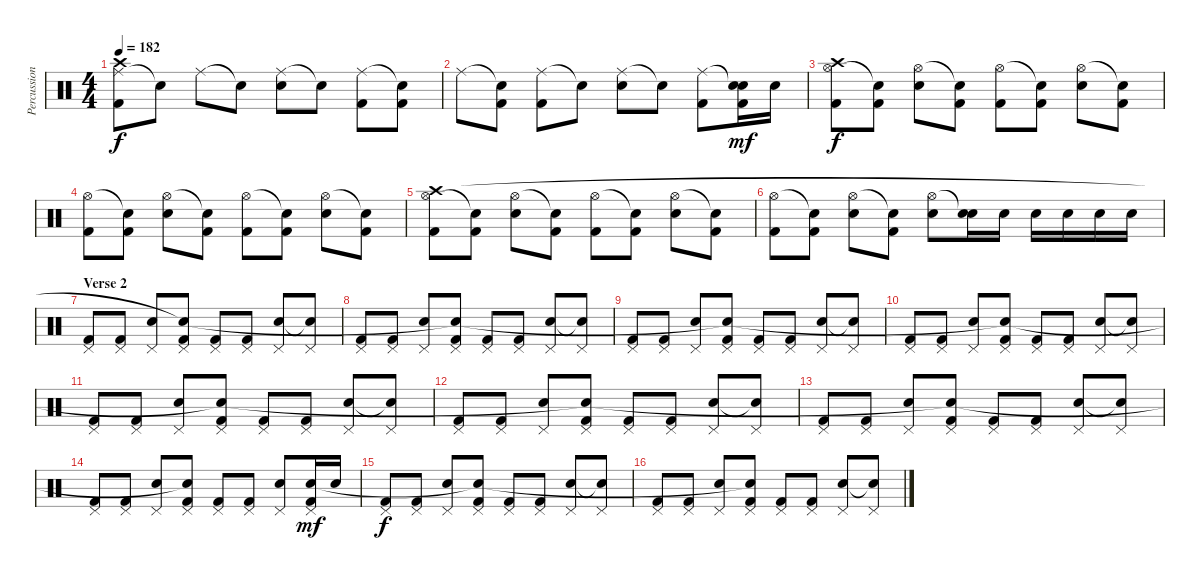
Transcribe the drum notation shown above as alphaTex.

\track ("Percussion" "Percussion") {instrument percussion}
\staff {score}
\articulation defaults
\ts (4 4)
\tempo 182
\clef neutral
\ks c
("Ride (middle)" "Kick (hit) 2" "Crash high (hit)").8{dy f} "Snare (hit)"{t}.8 "Ride (middle)".8 "Snare (hit)"{t}.8 ("Ride (middle)" "Electric Snare (hit)").8 "Snare (hit)"{t}.8 ("Ride (middle)" "Kick (hit) 2").8 ("Snare (hit)"{t} "Kick (hit) 2").8 |
"Ride (middle)".8 ("Snare (hit)"{t} "Kick (hit) 2").8 ("Ride (middle)" "Kick (hit) 2").8 "Snare (hit)"{t}.8 ("Ride (middle)" "Electric Snare (hit)").8 "Snare (hit)"{t}.8 ("Ride (middle)" "Kick (hit) 2").8 ("Snare (hit)"{t} "Kick (hit) 2" "Electric Snare (hit)").16{dy mf} "Electric Snare (hit)".16 |
("Hi-Hat (open)" "Kick (hit) 2" "Crash high (hit)").8{dy f} ("Snare (hit)"{t} "Kick (hit) 2").8 ("Hi-Hat (open)" "Electric Snare (hit)").8 ("Snare (hit)"{t} "Kick (hit) 2").8 ("Hi-Hat (open)" "Kick (hit) 2").8 ("Snare (hit)"{t} "Kick (hit) 2").8 ("Hi-Hat (open)" "Electric Snare (hit)").8 ("Snare (hit)"{t} "Kick (hit) 2").8 |
("Hi-Hat (open)" "Kick (hit) 2").8 ("Snare (hit)"{t} "Kick (hit) 2").8 ("Hi-Hat (open)" "Electric Snare (hit)").8 ("Snare (hit)"{t} "Kick (hit) 2").8 ("Hi-Hat (open)" "Kick (hit) 2").8 ("Snare (hit)"{t} "Kick (hit) 2").8 ("Hi-Hat (open)" "Electric Snare (hit)").8 ("Snare (hit)"{t} "Kick (hit) 2").8 |
("Hi-Hat (open)" "Kick (hit) 2" "Crash high (hit)").8 ("Snare (hit)"{t} "Kick (hit) 2").8 ("Hi-Hat (open)" "Electric Snare (hit)").8 ("Snare (hit)"{t} "Kick (hit) 2").8 ("Hi-Hat (open)" "Kick (hit) 2").8 ("Snare (hit)"{t} "Kick (hit) 2").8 ("Hi-Hat (open)" "Electric Snare (hit)").8 ("Snare (hit)"{t} "Kick (hit) 2").8 |
("Hi-Hat (open)" "Kick (hit) 2").8 ("Snare (hit)"{t} "Kick (hit) 2").8 ("Hi-Hat (open)" "Electric Snare (hit)").8 ("Snare (hit)"{t} "Kick (hit) 2").8 ("Hi-Hat (open)" "Electric Snare (hit)").8 ("Snare (hit)"{t} "Electric Snare (hit)").16 "Electric Snare (hit)".16 "Electric Snare (hit)".16 "Electric Snare (hit)".16 "Electric Snare (hit)".16 "Electric Snare (hit)".16 |
\section ("" "Verse 2")
("Pedal Hi-Hat (hit)" "Kick (hit) 2").8 ("Pedal Hi-Hat (hit)" "Kick (hit) 2").8 ("Pedal Hi-Hat (hit)" "Electric Snare (hit)").8 ("Pedal Hi-Hat (hit)" "Kick (hit) 2" "Snare (hit)"{t}).8 ("Pedal Hi-Hat (hit)" "Kick (hit) 2").8 ("Pedal Hi-Hat (hit)" "Kick (hit) 2").8 ("Pedal Hi-Hat (hit)" "Electric Snare (hit)").8 ("Pedal Hi-Hat (hit)" "Snare (hit)"{t}).8 |
("Pedal Hi-Hat (hit)" "Kick (hit) 2").8 ("Pedal Hi-Hat (hit)" "Kick (hit) 2").8 ("Pedal Hi-Hat (hit)" "Electric Snare (hit)").8 ("Pedal Hi-Hat (hit)" "Kick (hit) 2" "Snare (hit)"{t}).8 ("Pedal Hi-Hat (hit)" "Kick (hit) 2").8 ("Pedal Hi-Hat (hit)" "Kick (hit) 2").8 ("Pedal Hi-Hat (hit)" "Electric Snare (hit)").8 ("Pedal Hi-Hat (hit)" "Snare (hit)"{t}).8 |
("Pedal Hi-Hat (hit)" "Kick (hit) 2").8 ("Pedal Hi-Hat (hit)" "Kick (hit) 2").8 ("Pedal Hi-Hat (hit)" "Electric Snare (hit)").8 ("Pedal Hi-Hat (hit)" "Kick (hit) 2" "Snare (hit)"{t}).8 ("Pedal Hi-Hat (hit)" "Kick (hit) 2").8 ("Pedal Hi-Hat (hit)" "Kick (hit) 2").8 ("Pedal Hi-Hat (hit)" "Electric Snare (hit)").8 ("Pedal Hi-Hat (hit)" "Snare (hit)"{t}).8 |
("Pedal Hi-Hat (hit)" "Kick (hit) 2").8 ("Pedal Hi-Hat (hit)" "Kick (hit) 2").8 ("Pedal Hi-Hat (hit)" "Electric Snare (hit)").8 ("Pedal Hi-Hat (hit)" "Kick (hit) 2" "Snare (hit)"{t}).8 ("Pedal Hi-Hat (hit)" "Kick (hit) 2").8 ("Pedal Hi-Hat (hit)" "Kick (hit) 2").8 ("Pedal Hi-Hat (hit)" "Electric Snare (hit)").8 ("Pedal Hi-Hat (hit)" "Snare (hit)"{t}).8 |
("Pedal Hi-Hat (hit)" "Kick (hit) 2").8 ("Pedal Hi-Hat (hit)" "Kick (hit) 2").8 ("Pedal Hi-Hat (hit)" "Electric Snare (hit)").8 ("Pedal Hi-Hat (hit)" "Kick (hit) 2" "Snare (hit)"{t}).8 ("Pedal Hi-Hat (hit)" "Kick (hit) 2").8 ("Pedal Hi-Hat (hit)" "Kick (hit) 2").8 ("Pedal Hi-Hat (hit)" "Electric Snare (hit)").8 ("Pedal Hi-Hat (hit)" "Snare (hit)"{t}).8 |
("Pedal Hi-Hat (hit)" "Kick (hit) 2").8 ("Pedal Hi-Hat (hit)" "Kick (hit) 2").8 ("Pedal Hi-Hat (hit)" "Electric Snare (hit)").8 ("Pedal Hi-Hat (hit)" "Kick (hit) 2" "Snare (hit)"{t}).8 ("Pedal Hi-Hat (hit)" "Kick (hit) 2").8 ("Pedal Hi-Hat (hit)" "Kick (hit) 2").8 ("Pedal Hi-Hat (hit)" "Electric Snare (hit)").8 ("Pedal Hi-Hat (hit)" "Snare (hit)"{t}).8 |
("Pedal Hi-Hat (hit)" "Kick (hit) 2").8 ("Pedal Hi-Hat (hit)" "Kick (hit) 2").8 ("Pedal Hi-Hat (hit)" "Electric Snare (hit)").8 ("Pedal Hi-Hat (hit)" "Kick (hit) 2" "Snare (hit)"{t}).8 ("Pedal Hi-Hat (hit)" "Kick (hit) 2").8 ("Pedal Hi-Hat (hit)" "Kick (hit) 2").8 ("Pedal Hi-Hat (hit)" "Electric Snare (hit)").8 ("Pedal Hi-Hat (hit)" "Snare (hit)"{t}).8 |
("Pedal Hi-Hat (hit)" "Kick (hit) 2").8 ("Pedal Hi-Hat (hit)" "Kick (hit) 2").8 ("Pedal Hi-Hat (hit)" "Electric Snare (hit)").8 ("Pedal Hi-Hat (hit)" "Kick (hit) 2" "Snare (hit)"{t}).8 ("Pedal Hi-Hat (hit)" "Kick (hit) 2").8 ("Pedal Hi-Hat (hit)" "Kick (hit) 2").8 ("Pedal Hi-Hat (hit)" "Electric Snare (hit)").8 ("Pedal Hi-Hat (hit)" "Kick (hit) 2" "Electric Snare (hit)").16{dy mf} "Electric Snare (hit)".16 |
("Pedal Hi-Hat (hit)" "Kick (hit) 2").8{dy f} ("Pedal Hi-Hat (hit)" "Kick (hit) 2").8 ("Pedal Hi-Hat (hit)" "Electric Snare (hit)").8 ("Pedal Hi-Hat (hit)" "Kick (hit) 2" "Snare (hit)"{t}).8 ("Pedal Hi-Hat (hit)" "Kick (hit) 2").8 ("Pedal Hi-Hat (hit)" "Kick (hit) 2").8 ("Pedal Hi-Hat (hit)" "Electric Snare (hit)").8 ("Pedal Hi-Hat (hit)" "Snare (hit)"{t}).8 |
("Pedal Hi-Hat (hit)" "Kick (hit) 2").8 ("Pedal Hi-Hat (hit)" "Kick (hit) 2").8 ("Pedal Hi-Hat (hit)" "Electric Snare (hit)").8 ("Pedal Hi-Hat (hit)" "Kick (hit) 2" "Snare (hit)"{t}).8 ("Pedal Hi-Hat (hit)" "Kick (hit) 2").8 ("Pedal Hi-Hat (hit)" "Kick (hit) 2").8 ("Pedal Hi-Hat (hit)" "Electric Snare (hit)").8 ("Pedal Hi-Hat (hit)" "Snare (hit)"{t}).8
